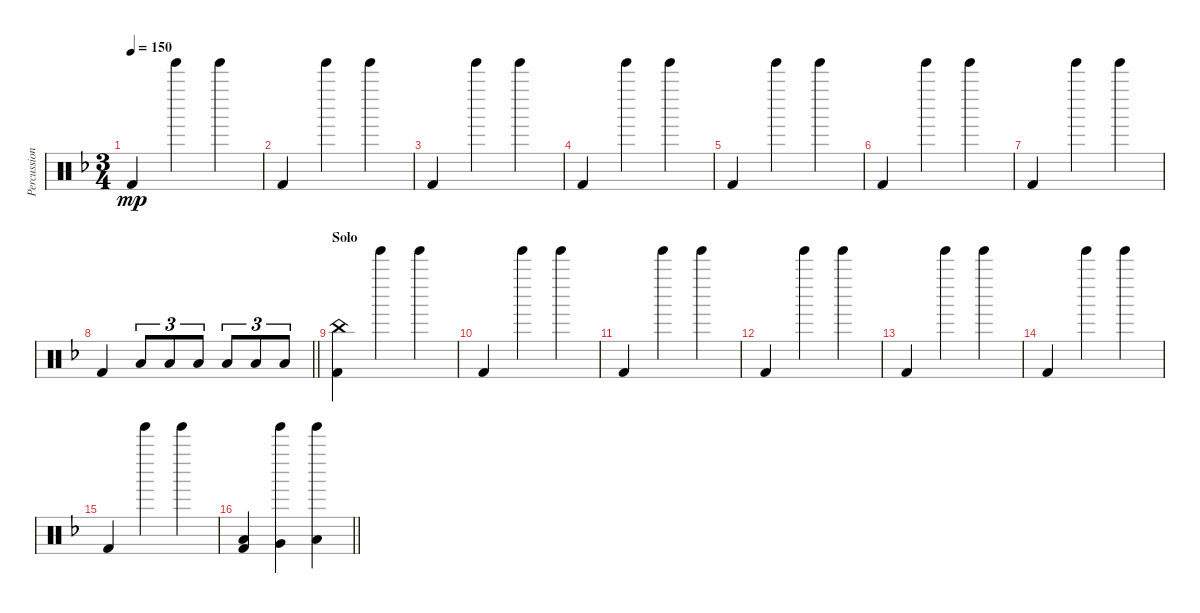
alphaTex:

\track ("Percussions" "Percussion") {instrument percussion}
\staff {score}
\articulation defaults
\ts (3 4)
\tempo 150
\clef neutral
\ks f "Kick (hit) 2".4{dy mp} "Tinkle Bell (hit)".4 "Tinkle Bell (hit)".4
|
"Kick (hit) 2".4 "Tinkle Bell (hit)".4 "Tinkle Bell (hit)".4 |
"Kick (hit) 2".4 "Tinkle Bell (hit)".4 "Tinkle Bell (hit)".4 |
"Kick (hit) 2".4 "Tinkle Bell (hit)".4 "Tinkle Bell (hit)".4 |
"Kick (hit) 2".4 "Tinkle Bell (hit)".4 "Tinkle Bell (hit)".4 |
"Kick (hit) 2".4 "Tinkle Bell (hit)".4 "Tinkle Bell (hit)".4 |
"Kick (hit) 2".4 "Tinkle Bell (hit)".4 "Tinkle Bell (hit)".4 |
\barLineRight lightlight "Kick (hit) 2".4 "Low Tom (hit)".8{tu (3 2)} "Low Tom (hit)".8{tu (3 2)} "Low Tom (hit)".8{tu (3 2)} "Low Tom (hit)".8{tu (3 2)} "Low Tom (hit)".8{tu (3 2)} "Low Tom (hit)".8{tu (3 2)}
|
\section ("" "Solo")
("China (hit)" "Kick (hit) 2").4 "Tinkle Bell (hit)".4 "Tinkle Bell (hit)".4 |
"Kick (hit) 2".4 "Tinkle Bell (hit)".4 "Tinkle Bell (hit)".4 |
"Kick (hit) 2".4 "Tinkle Bell (hit)".4 "Tinkle Bell (hit)".4 |
"Kick (hit) 2".4 "Tinkle Bell (hit)".4 "Tinkle Bell (hit)".4 |
"Kick (hit) 2".4 "Tinkle Bell (hit)".4 "Tinkle Bell (hit)".4 |
"Kick (hit) 2".4 "Tinkle Bell (hit)".4 "Tinkle Bell (hit)".4 |
"Kick (hit) 2".4 "Tinkle Bell (hit)".4 "Tinkle Bell (hit)".4 |
\barLineRight lightlight
("Low Tom (hit)" "Kick (hit) 2").4 ("Very Low Tom (hit)" "Tinkle Bell (hit)").4 ("Low Floor Tom (hit)" "Tinkle Bell (hit)").4
